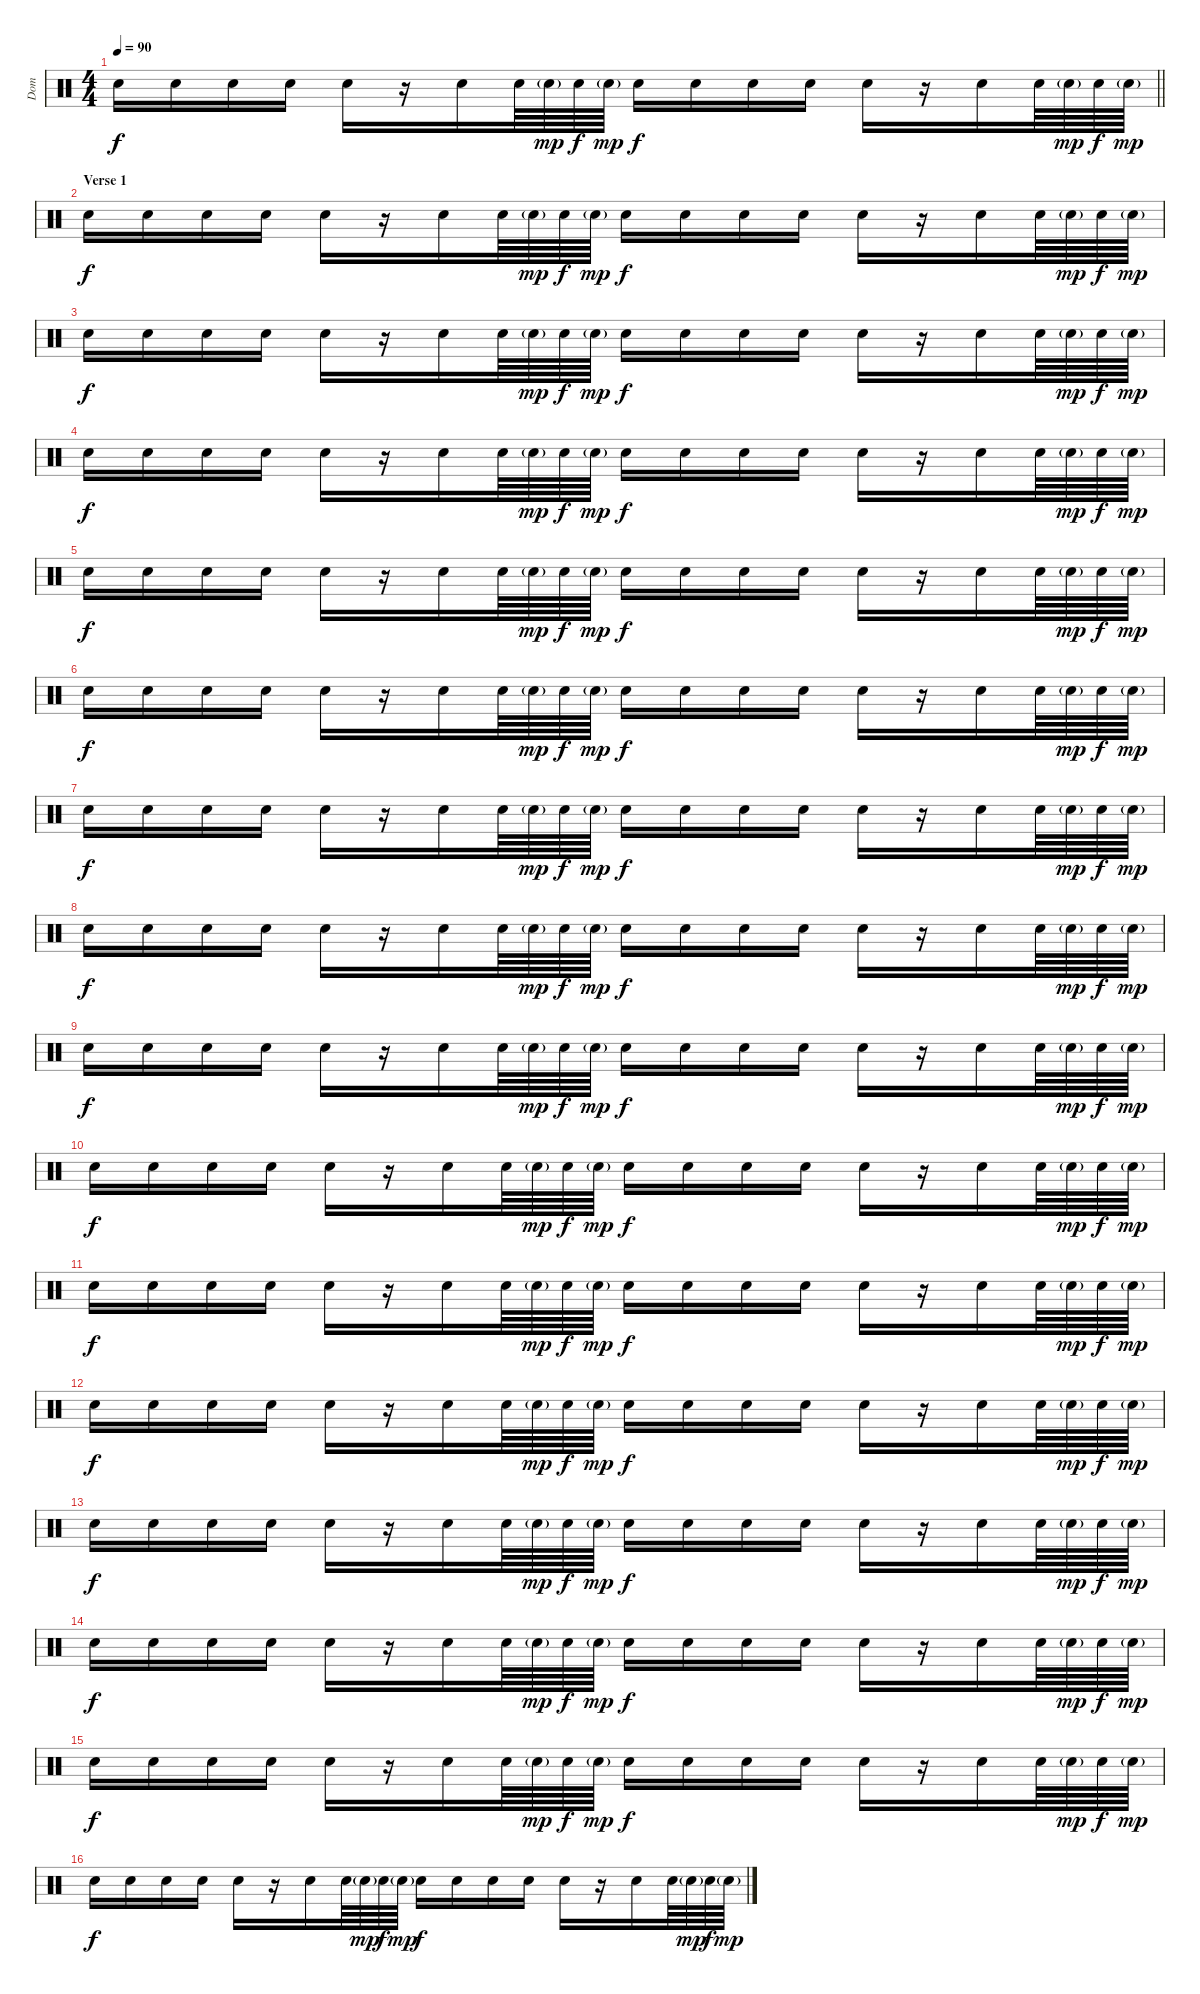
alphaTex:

\track ("Dom" "Dom") {instrument percussion}
\staff {score}
\articulation defaults
\ts (4 4)
\tempo 90
\clef neutral
\barLineRight lightlight
\ks c "Snare (hit) 2".16{dy f} "Snare (hit) 2".16 "Snare (hit) 2".16 "Snare (hit) 2".16 "Snare (hit) 2".16
r.16 "Snare (hit) 2".16 "Snare (hit) 2".64 "Snare (hit) 2"{g}.64{dy mp} "Snare (hit) 2".64{dy f} "Snare (hit) 2"{g}.64{dy mp} "Snare (hit) 2".16{dy f} "Snare (hit) 2".16 "Snare (hit) 2".16 "Snare (hit) 2".16 "Snare (hit) 2".16 r.16 "Snare (hit) 2".16 "Snare (hit) 2".64 "Snare (hit) 2"{g}.64{dy mp} "Snare (hit) 2".64{dy f} "Snare (hit) 2"{g}.64{dy mp} |
\section ("" "Verse 1")
"Snare (hit) 2".16{dy f volume 11} "Snare (hit) 2".16 "Snare (hit) 2".16 "Snare (hit) 2".16 "Snare (hit) 2".16 r.16 "Snare (hit) 2".16 "Snare (hit) 2".64 "Snare (hit) 2"{g}.64{dy mp} "Snare (hit) 2".64{dy f} "Snare (hit) 2"{g}.64{dy mp} "Snare (hit) 2".16{dy f} "Snare (hit) 2".16 "Snare (hit) 2".16 "Snare (hit) 2".16 "Snare (hit) 2".16 r.16 "Snare (hit) 2".16 "Snare (hit) 2".64 "Snare (hit) 2"{g}.64{dy mp} "Snare (hit) 2".64{dy f} "Snare (hit) 2"{g}.64{dy mp} |
"Snare (hit) 2".16{dy f} "Snare (hit) 2".16 "Snare (hit) 2".16 "Snare (hit) 2".16 "Snare (hit) 2".16 r.16 "Snare (hit) 2".16 "Snare (hit) 2".64 "Snare (hit) 2"{g}.64{dy mp} "Snare (hit) 2".64{dy f} "Snare (hit) 2"{g}.64{dy mp} "Snare (hit) 2".16{dy f} "Snare (hit) 2".16 "Snare (hit) 2".16 "Snare (hit) 2".16 "Snare (hit) 2".16 r.16 "Snare (hit) 2".16 "Snare (hit) 2".64 "Snare (hit) 2"{g}.64{dy mp} "Snare (hit) 2".64{dy f} "Snare (hit) 2"{g}.64{dy mp} |
"Snare (hit) 2".16{dy f} "Snare (hit) 2".16 "Snare (hit) 2".16 "Snare (hit) 2".16 "Snare (hit) 2".16 r.16 "Snare (hit) 2".16 "Snare (hit) 2".64 "Snare (hit) 2"{g}.64{dy mp} "Snare (hit) 2".64{dy f} "Snare (hit) 2"{g}.64{dy mp} "Snare (hit) 2".16{dy f} "Snare (hit) 2".16 "Snare (hit) 2".16 "Snare (hit) 2".16 "Snare (hit) 2".16 r.16 "Snare (hit) 2".16 "Snare (hit) 2".64 "Snare (hit) 2"{g}.64{dy mp} "Snare (hit) 2".64{dy f} "Snare (hit) 2"{g}.64{dy mp} |
"Snare (hit) 2".16{dy f} "Snare (hit) 2".16 "Snare (hit) 2".16 "Snare (hit) 2".16 "Snare (hit) 2".16 r.16 "Snare (hit) 2".16 "Snare (hit) 2".64 "Snare (hit) 2"{g}.64{dy mp} "Snare (hit) 2".64{dy f} "Snare (hit) 2"{g}.64{dy mp} "Snare (hit) 2".16{dy f} "Snare (hit) 2".16 "Snare (hit) 2".16 "Snare (hit) 2".16 "Snare (hit) 2".16 r.16 "Snare (hit) 2".16 "Snare (hit) 2".64 "Snare (hit) 2"{g}.64{dy mp} "Snare (hit) 2".64{dy f} "Snare (hit) 2"{g}.64{dy mp} |
"Snare (hit) 2".16{dy f} "Snare (hit) 2".16 "Snare (hit) 2".16 "Snare (hit) 2".16 "Snare (hit) 2".16 r.16 "Snare (hit) 2".16 "Snare (hit) 2".64 "Snare (hit) 2"{g}.64{dy mp} "Snare (hit) 2".64{dy f} "Snare (hit) 2"{g}.64{dy mp} "Snare (hit) 2".16{dy f} "Snare (hit) 2".16 "Snare (hit) 2".16 "Snare (hit) 2".16 "Snare (hit) 2".16 r.16 "Snare (hit) 2".16 "Snare (hit) 2".64 "Snare (hit) 2"{g}.64{dy mp} "Snare (hit) 2".64{dy f} "Snare (hit) 2"{g}.64{dy mp} |
"Snare (hit) 2".16{dy f} "Snare (hit) 2".16 "Snare (hit) 2".16 "Snare (hit) 2".16 "Snare (hit) 2".16 r.16 "Snare (hit) 2".16 "Snare (hit) 2".64 "Snare (hit) 2"{g}.64{dy mp} "Snare (hit) 2".64{dy f} "Snare (hit) 2"{g}.64{dy mp} "Snare (hit) 2".16{dy f} "Snare (hit) 2".16 "Snare (hit) 2".16 "Snare (hit) 2".16 "Snare (hit) 2".16 r.16 "Snare (hit) 2".16 "Snare (hit) 2".64 "Snare (hit) 2"{g}.64{dy mp} "Snare (hit) 2".64{dy f} "Snare (hit) 2"{g}.64{dy mp} |
"Snare (hit) 2".16{dy f} "Snare (hit) 2".16 "Snare (hit) 2".16 "Snare (hit) 2".16 "Snare (hit) 2".16 r.16 "Snare (hit) 2".16 "Snare (hit) 2".64 "Snare (hit) 2"{g}.64{dy mp} "Snare (hit) 2".64{dy f} "Snare (hit) 2"{g}.64{dy mp} "Snare (hit) 2".16{dy f} "Snare (hit) 2".16 "Snare (hit) 2".16 "Snare (hit) 2".16 "Snare (hit) 2".16 r.16 "Snare (hit) 2".16 "Snare (hit) 2".64 "Snare (hit) 2"{g}.64{dy mp} "Snare (hit) 2".64{dy f} "Snare (hit) 2"{g}.64{dy mp} |
"Snare (hit) 2".16{dy f} "Snare (hit) 2".16 "Snare (hit) 2".16 "Snare (hit) 2".16 "Snare (hit) 2".16 r.16 "Snare (hit) 2".16 "Snare (hit) 2".64 "Snare (hit) 2"{g}.64{dy mp} "Snare (hit) 2".64{dy f} "Snare (hit) 2"{g}.64{dy mp} "Snare (hit) 2".16{dy f} "Snare (hit) 2".16 "Snare (hit) 2".16 "Snare (hit) 2".16 "Snare (hit) 2".16 r.16 "Snare (hit) 2".16 "Snare (hit) 2".64 "Snare (hit) 2"{g}.64{dy mp} "Snare (hit) 2".64{dy f} "Snare (hit) 2"{g}.64{dy mp} |
"Snare (hit) 2".16{dy f} "Snare (hit) 2".16 "Snare (hit) 2".16 "Snare (hit) 2".16 "Snare (hit) 2".16 r.16 "Snare (hit) 2".16 "Snare (hit) 2".64 "Snare (hit) 2"{g}.64{dy mp} "Snare (hit) 2".64{dy f} "Snare (hit) 2"{g}.64{dy mp} "Snare (hit) 2".16{dy f} "Snare (hit) 2".16 "Snare (hit) 2".16 "Snare (hit) 2".16 "Snare (hit) 2".16 r.16 "Snare (hit) 2".16 "Snare (hit) 2".64 "Snare (hit) 2"{g}.64{dy mp} "Snare (hit) 2".64{dy f} "Snare (hit) 2"{g}.64{dy mp} |
"Snare (hit) 2".16{dy f} "Snare (hit) 2".16 "Snare (hit) 2".16 "Snare (hit) 2".16 "Snare (hit) 2".16 r.16 "Snare (hit) 2".16 "Snare (hit) 2".64 "Snare (hit) 2"{g}.64{dy mp} "Snare (hit) 2".64{dy f} "Snare (hit) 2"{g}.64{dy mp} "Snare (hit) 2".16{dy f} "Snare (hit) 2".16 "Snare (hit) 2".16 "Snare (hit) 2".16 "Snare (hit) 2".16 r.16 "Snare (hit) 2".16 "Snare (hit) 2".64 "Snare (hit) 2"{g}.64{dy mp} "Snare (hit) 2".64{dy f} "Snare (hit) 2"{g}.64{dy mp} |
"Snare (hit) 2".16{dy f} "Snare (hit) 2".16 "Snare (hit) 2".16 "Snare (hit) 2".16 "Snare (hit) 2".16 r.16 "Snare (hit) 2".16 "Snare (hit) 2".64 "Snare (hit) 2"{g}.64{dy mp} "Snare (hit) 2".64{dy f} "Snare (hit) 2"{g}.64{dy mp} "Snare (hit) 2".16{dy f} "Snare (hit) 2".16 "Snare (hit) 2".16 "Snare (hit) 2".16 "Snare (hit) 2".16 r.16 "Snare (hit) 2".16 "Snare (hit) 2".64 "Snare (hit) 2"{g}.64{dy mp} "Snare (hit) 2".64{dy f} "Snare (hit) 2"{g}.64{dy mp} |
"Snare (hit) 2".16{dy f} "Snare (hit) 2".16 "Snare (hit) 2".16 "Snare (hit) 2".16 "Snare (hit) 2".16 r.16 "Snare (hit) 2".16 "Snare (hit) 2".64 "Snare (hit) 2"{g}.64{dy mp} "Snare (hit) 2".64{dy f} "Snare (hit) 2"{g}.64{dy mp} "Snare (hit) 2".16{dy f} "Snare (hit) 2".16 "Snare (hit) 2".16 "Snare (hit) 2".16 "Snare (hit) 2".16 r.16 "Snare (hit) 2".16 "Snare (hit) 2".64 "Snare (hit) 2"{g}.64{dy mp} "Snare (hit) 2".64{dy f} "Snare (hit) 2"{g}.64{dy mp} |
"Snare (hit) 2".16{dy f} "Snare (hit) 2".16 "Snare (hit) 2".16 "Snare (hit) 2".16 "Snare (hit) 2".16 r.16 "Snare (hit) 2".16 "Snare (hit) 2".64 "Snare (hit) 2"{g}.64{dy mp} "Snare (hit) 2".64{dy f} "Snare (hit) 2"{g}.64{dy mp} "Snare (hit) 2".16{dy f} "Snare (hit) 2".16 "Snare (hit) 2".16 "Snare (hit) 2".16 "Snare (hit) 2".16 r.16 "Snare (hit) 2".16 "Snare (hit) 2".64 "Snare (hit) 2"{g}.64{dy mp} "Snare (hit) 2".64{dy f} "Snare (hit) 2"{g}.64{dy mp} |
"Snare (hit) 2".16{dy f} "Snare (hit) 2".16 "Snare (hit) 2".16 "Snare (hit) 2".16 "Snare (hit) 2".16 r.16 "Snare (hit) 2".16 "Snare (hit) 2".64 "Snare (hit) 2"{g}.64{dy mp} "Snare (hit) 2".64{dy f} "Snare (hit) 2"{g}.64{dy mp} "Snare (hit) 2".16{dy f} "Snare (hit) 2".16 "Snare (hit) 2".16 "Snare (hit) 2".16 "Snare (hit) 2".16 r.16 "Snare (hit) 2".16 "Snare (hit) 2".64 "Snare (hit) 2"{g}.64{dy mp} "Snare (hit) 2".64{dy f} "Snare (hit) 2"{g}.64{dy mp} |
"Snare (hit) 2".16{dy f} "Snare (hit) 2".16 "Snare (hit) 2".16 "Snare (hit) 2".16 "Snare (hit) 2".16 r.16 "Snare (hit) 2".16 "Snare (hit) 2".64 "Snare (hit) 2"{g}.64{dy mp} "Snare (hit) 2".64{dy f} "Snare (hit) 2"{g}.64{dy mp} "Snare (hit) 2".16{dy f} "Snare (hit) 2".16 "Snare (hit) 2".16 "Snare (hit) 2".16 "Snare (hit) 2".16 r.16 "Snare (hit) 2".16 "Snare (hit) 2".64 "Snare (hit) 2"{g}.64{dy mp} "Snare (hit) 2".64{dy f} "Snare (hit) 2"{g}.64{dy mp}
